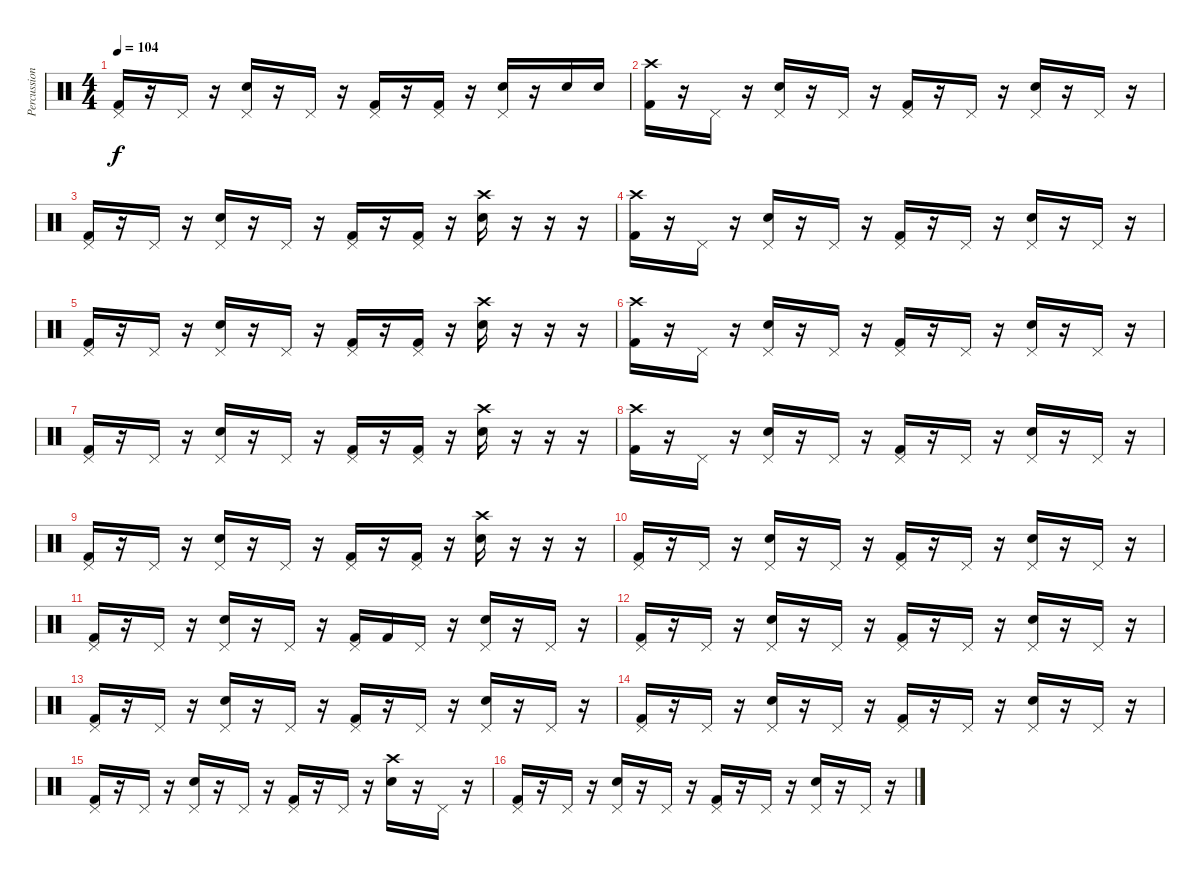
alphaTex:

\track ("Percussion" "Percussion") {instrument percussion}
\staff {score}
\articulation defaults
\ts (4 4)
\tempo 104
\clef neutral
\ks c
("Pedal Hi-Hat (hit)" "Kick (hit) 2").16{dy f} r.16 "Pedal Hi-Hat (hit)".16 r.16 ("Pedal Hi-Hat (hit)" "Snare (hit) 2").16 r.16 "Pedal Hi-Hat (hit)".16 r.16 ("Pedal Hi-Hat (hit)" "Kick (hit) 2").16 r.16 ("Pedal Hi-Hat (hit)" "Kick (hit) 2").16 r.16 ("Pedal Hi-Hat (hit)" "Snare (hit) 2").16 r.16 "Snare (hit) 2".16 "Snare (hit) 2".16 |
("Crash high (hit)" "Kick (hit) 2").16 r.16 "Pedal Hi-Hat (hit)".16 r.16 ("Pedal Hi-Hat (hit)" "Snare (hit) 2").16 r.16 "Pedal Hi-Hat (hit)".16 r.16 ("Pedal Hi-Hat (hit)" "Kick (hit) 2").16 r.16 "Pedal Hi-Hat (hit)".16 r.16 ("Pedal Hi-Hat (hit)" "Snare (hit) 2").16 r.16 "Pedal Hi-Hat (hit)".16 r.16 |
("Pedal Hi-Hat (hit)" "Kick (hit) 2").16 r.16 "Pedal Hi-Hat (hit)".16 r.16 ("Pedal Hi-Hat (hit)" "Snare (hit) 2").16 r.16 "Pedal Hi-Hat (hit)".16 r.16 ("Pedal Hi-Hat (hit)" "Kick (hit) 2").16 r.16 ("Pedal Hi-Hat (hit)" "Kick (hit) 2").16 r.16 ("Crash high (hit)" "Snare (hit) 2").16 r.16 r.16 r.16 |
("Crash high (hit)" "Kick (hit) 2").16 r.16 "Pedal Hi-Hat (hit)".16 r.16 ("Pedal Hi-Hat (hit)" "Snare (hit) 2").16 r.16 "Pedal Hi-Hat (hit)".16 r.16 ("Pedal Hi-Hat (hit)" "Kick (hit) 2").16 r.16 "Pedal Hi-Hat (hit)".16 r.16 ("Pedal Hi-Hat (hit)" "Snare (hit) 2").16 r.16 "Pedal Hi-Hat (hit)".16 r.16 |
("Pedal Hi-Hat (hit)" "Kick (hit) 2").16 r.16 "Pedal Hi-Hat (hit)".16 r.16 ("Pedal Hi-Hat (hit)" "Snare (hit) 2").16 r.16 "Pedal Hi-Hat (hit)".16 r.16 ("Pedal Hi-Hat (hit)" "Kick (hit) 2").16 r.16 ("Pedal Hi-Hat (hit)" "Kick (hit) 2").16 r.16 ("Crash high (hit)" "Snare (hit) 2").16 r.16 r.16 r.16 |
("Crash high (hit)" "Kick (hit) 2").16 r.16 "Pedal Hi-Hat (hit)".16 r.16 ("Pedal Hi-Hat (hit)" "Snare (hit) 2").16 r.16 "Pedal Hi-Hat (hit)".16 r.16 ("Pedal Hi-Hat (hit)" "Kick (hit) 2").16 r.16 "Pedal Hi-Hat (hit)".16 r.16 ("Pedal Hi-Hat (hit)" "Snare (hit) 2").16 r.16 "Pedal Hi-Hat (hit)".16 r.16 |
("Pedal Hi-Hat (hit)" "Kick (hit) 2").16 r.16 "Pedal Hi-Hat (hit)".16 r.16 ("Pedal Hi-Hat (hit)" "Snare (hit) 2").16 r.16 "Pedal Hi-Hat (hit)".16 r.16 ("Pedal Hi-Hat (hit)" "Kick (hit) 2").16 r.16 ("Pedal Hi-Hat (hit)" "Kick (hit) 2").16 r.16 ("Crash high (hit)" "Snare (hit) 2").16 r.16 r.16 r.16 |
("Crash high (hit)" "Kick (hit) 2").16 r.16 "Pedal Hi-Hat (hit)".16 r.16 ("Pedal Hi-Hat (hit)" "Snare (hit) 2").16 r.16 "Pedal Hi-Hat (hit)".16 r.16 ("Pedal Hi-Hat (hit)" "Kick (hit) 2").16 r.16 "Pedal Hi-Hat (hit)".16 r.16 ("Pedal Hi-Hat (hit)" "Snare (hit) 2").16 r.16 "Pedal Hi-Hat (hit)".16 r.16 |
("Pedal Hi-Hat (hit)" "Kick (hit) 2").16 r.16 "Pedal Hi-Hat (hit)".16 r.16 ("Pedal Hi-Hat (hit)" "Snare (hit) 2").16 r.16 "Pedal Hi-Hat (hit)".16 r.16 ("Pedal Hi-Hat (hit)" "Kick (hit) 2").16 r.16 ("Pedal Hi-Hat (hit)" "Kick (hit) 2").16 r.16 ("Crash high (hit)" "Snare (hit) 2").16 r.16 r.16 r.16 |
("Pedal Hi-Hat (hit)" "Kick (hit) 2").16 r.16 "Pedal Hi-Hat (hit)".16 r.16 ("Pedal Hi-Hat (hit)" "Snare (hit) 2").16 r.16 "Pedal Hi-Hat (hit)".16 r.16 ("Pedal Hi-Hat (hit)" "Kick (hit) 2").16 r.16 "Pedal Hi-Hat (hit)".16 r.16 ("Pedal Hi-Hat (hit)" "Snare (hit) 2").16 r.16 "Pedal Hi-Hat (hit)".16 r.16 |
("Pedal Hi-Hat (hit)" "Kick (hit) 2").16 r.16 "Pedal Hi-Hat (hit)".16 r.16 ("Pedal Hi-Hat (hit)" "Snare (hit) 2").16 r.16 "Pedal Hi-Hat (hit)".16 r.16 ("Pedal Hi-Hat (hit)" "Kick (hit) 2").16 "Kick (hit) 2".16 "Pedal Hi-Hat (hit)".16 r.16 ("Pedal Hi-Hat (hit)" "Snare (hit) 2").16 r.16 "Pedal Hi-Hat (hit)".16 r.16 |
("Pedal Hi-Hat (hit)" "Kick (hit) 2").16 r.16 "Pedal Hi-Hat (hit)".16 r.16 ("Pedal Hi-Hat (hit)" "Snare (hit) 2").16 r.16 "Pedal Hi-Hat (hit)".16 r.16 ("Pedal Hi-Hat (hit)" "Kick (hit) 2").16 r.16 "Pedal Hi-Hat (hit)".16 r.16 ("Pedal Hi-Hat (hit)" "Snare (hit) 2").16 r.16 "Pedal Hi-Hat (hit)".16 r.16 |
("Pedal Hi-Hat (hit)" "Kick (hit) 2").16 r.16 "Pedal Hi-Hat (hit)".16 r.16 ("Pedal Hi-Hat (hit)" "Snare (hit) 2").16 r.16 "Pedal Hi-Hat (hit)".16 r.16 ("Pedal Hi-Hat (hit)" "Kick (hit) 2").16 r.16 "Pedal Hi-Hat (hit)".16 r.16 ("Pedal Hi-Hat (hit)" "Snare (hit) 2").16 r.16 "Pedal Hi-Hat (hit)".16 r.16 |
("Pedal Hi-Hat (hit)" "Kick (hit) 2").16 r.16 "Pedal Hi-Hat (hit)".16 r.16 ("Pedal Hi-Hat (hit)" "Snare (hit) 2").16 r.16 "Pedal Hi-Hat (hit)".16 r.16 ("Pedal Hi-Hat (hit)" "Kick (hit) 2").16 r.16 "Pedal Hi-Hat (hit)".16 r.16 ("Pedal Hi-Hat (hit)" "Snare (hit) 2").16 r.16 "Pedal Hi-Hat (hit)".16 r.16 |
("Pedal Hi-Hat (hit)" "Kick (hit) 2").16 r.16 "Pedal Hi-Hat (hit)".16 r.16 ("Pedal Hi-Hat (hit)" "Snare (hit) 2").16 r.16 "Pedal Hi-Hat (hit)".16 r.16 ("Pedal Hi-Hat (hit)" "Kick (hit) 2").16 r.16 "Pedal Hi-Hat (hit)".16 r.16 ("Crash high (hit)" "Snare (hit) 2").16 r.16 "Pedal Hi-Hat (hit)".16 r.16 |
("Pedal Hi-Hat (hit)" "Kick (hit) 2").16 r.16 "Pedal Hi-Hat (hit)".16 r.16 ("Pedal Hi-Hat (hit)" "Snare (hit) 2").16 r.16 "Pedal Hi-Hat (hit)".16 r.16 ("Pedal Hi-Hat (hit)" "Kick (hit) 2").16 r.16 "Pedal Hi-Hat (hit)".16 r.16 ("Pedal Hi-Hat (hit)" "Snare (hit) 2").16 r.16 "Pedal Hi-Hat (hit)".16 r.16
